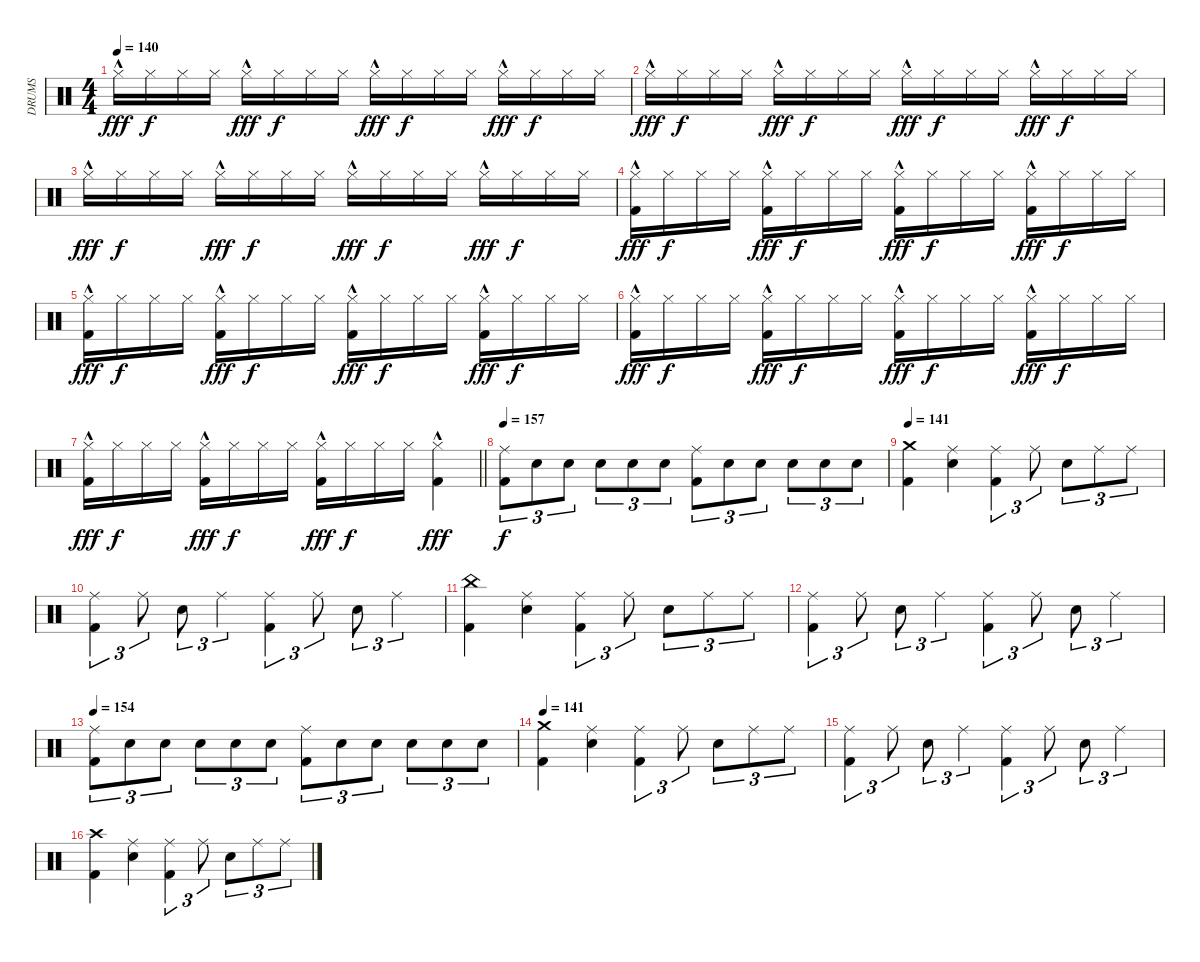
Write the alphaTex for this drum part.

\track ("DRUMS" "DRUMS") {instrument percussion}
\staff {score}
\articulation defaults
\ts (4 4)
\tempo 140
\clef neutral
\ks c "Hi-Hat (closed)"{hac}.16{dy fff} "Hi-Hat (closed)".16{dy f} "Hi-Hat (closed)".16 "Hi-Hat (closed)".16 "Hi-Hat (closed)"{hac}.16{dy fff} "Hi-Hat (closed)".16{dy f} "Hi-Hat (closed)".16 "Hi-Hat (closed)".16 "Hi-Hat (closed)"{hac}.16{dy fff} "Hi-Hat (closed)".16{dy f} "Hi-Hat (closed)".16 "Hi-Hat (closed)".16 "Hi-Hat (closed)"{hac}.16{dy fff} "Hi-Hat (closed)".16{dy f} "Hi-Hat (closed)".16 "Hi-Hat (closed)".16
|
"Hi-Hat (closed)"{hac}.16{dy fff} "Hi-Hat (closed)".16{dy f} "Hi-Hat (closed)".16 "Hi-Hat (closed)".16 "Hi-Hat (closed)"{hac}.16{dy fff} "Hi-Hat (closed)".16{dy f} "Hi-Hat (closed)".16 "Hi-Hat (closed)".16 "Hi-Hat (closed)"{hac}.16{dy fff} "Hi-Hat (closed)".16{dy f} "Hi-Hat (closed)".16 "Hi-Hat (closed)".16 "Hi-Hat (closed)"{hac}.16{dy fff} "Hi-Hat (closed)".16{dy f} "Hi-Hat (closed)".16 "Hi-Hat (closed)".16 |
"Hi-Hat (closed)"{hac}.16{dy fff} "Hi-Hat (closed)".16{dy f} "Hi-Hat (closed)".16 "Hi-Hat (closed)".16 "Hi-Hat (closed)"{hac}.16{dy fff} "Hi-Hat (closed)".16{dy f} "Hi-Hat (closed)".16 "Hi-Hat (closed)".16 "Hi-Hat (closed)"{hac}.16{dy fff} "Hi-Hat (closed)".16{dy f} "Hi-Hat (closed)".16 "Hi-Hat (closed)".16 "Hi-Hat (closed)"{hac}.16{dy fff} "Hi-Hat (closed)".16{dy f} "Hi-Hat (closed)".16 "Hi-Hat (closed)".16 |
("Hi-Hat (closed)"{hac} "Kick (hit) 2").16{dy fff} "Hi-Hat (closed)".16{dy f} "Hi-Hat (closed)".16 "Hi-Hat (closed)".16 ("Hi-Hat (closed)"{hac} "Kick (hit) 2").16{dy fff} "Hi-Hat (closed)".16{dy f} "Hi-Hat (closed)".16 "Hi-Hat (closed)".16 ("Hi-Hat (closed)"{hac} "Kick (hit) 2").16{dy fff} "Hi-Hat (closed)".16{dy f} "Hi-Hat (closed)".16 "Hi-Hat (closed)".16 ("Hi-Hat (closed)"{hac} "Kick (hit) 2").16{dy fff} "Hi-Hat (closed)".16{dy f} "Hi-Hat (closed)".16 "Hi-Hat (closed)".16 |
("Hi-Hat (closed)"{hac} "Kick (hit) 2").16{dy fff} "Hi-Hat (closed)".16{dy f} "Hi-Hat (closed)".16 "Hi-Hat (closed)".16 ("Hi-Hat (closed)"{hac} "Kick (hit) 2").16{dy fff} "Hi-Hat (closed)".16{dy f} "Hi-Hat (closed)".16 "Hi-Hat (closed)".16 ("Hi-Hat (closed)"{hac} "Kick (hit) 2").16{dy fff} "Hi-Hat (closed)".16{dy f} "Hi-Hat (closed)".16 "Hi-Hat (closed)".16 ("Hi-Hat (closed)"{hac} "Kick (hit) 2").16{dy fff} "Hi-Hat (closed)".16{dy f} "Hi-Hat (closed)".16 "Hi-Hat (closed)".16 |
("Hi-Hat (closed)"{hac} "Kick (hit) 2").16{dy fff} "Hi-Hat (closed)".16{dy f} "Hi-Hat (closed)".16 "Hi-Hat (closed)".16 ("Hi-Hat (closed)"{hac} "Kick (hit) 2").16{dy fff} "Hi-Hat (closed)".16{dy f} "Hi-Hat (closed)".16 "Hi-Hat (closed)".16 ("Hi-Hat (closed)"{hac} "Kick (hit) 2").16{dy fff} "Hi-Hat (closed)".16{dy f} "Hi-Hat (closed)".16 "Hi-Hat (closed)".16 ("Hi-Hat (closed)"{hac} "Kick (hit) 2").16{dy fff} "Hi-Hat (closed)".16{dy f} "Hi-Hat (closed)".16 "Hi-Hat (closed)".16 |
\barLineRight lightlight
("Hi-Hat (closed)"{hac} "Kick (hit) 2").16{dy fff} "Hi-Hat (closed)".16{dy f} "Hi-Hat (closed)".16 "Hi-Hat (closed)".16 ("Hi-Hat (closed)"{hac} "Kick (hit) 2").16{dy fff} "Hi-Hat (closed)".16{dy f} "Hi-Hat (closed)".16 "Hi-Hat (closed)".16 ("Hi-Hat (closed)"{hac} "Kick (hit) 2").16{dy fff} "Hi-Hat (closed)".16{dy f} "Hi-Hat (closed)".16 "Hi-Hat (closed)".16 ("Hi-Hat (closed)"{hac} "Kick (hit) 2").4{dy fff} |
\tempo 157
("Ride (middle)" "Kick (hit) 2").8{tu (3 2) dy f} "Snare (hit) 2".8{tu (3 2)} "Snare (hit) 2".8{tu (3 2)} "Snare (hit) 2".8{tu (3 2)} "Snare (hit) 2".8{tu (3 2)} "Snare (hit) 2".8{tu (3 2)} ("Ride (middle)" "Kick (hit) 2").8{tu (3 2)} "Snare (hit) 2".8{tu (3 2)} "Snare (hit) 2".8{tu (3 2)} "Snare (hit) 2".8{tu (3 2)} "Snare (hit) 2".8{tu (3 2)} "Snare (hit) 2".8{tu (3 2)} |
\tempo 141
("Crash medium (hit)" "Kick (hit) 2").4 ("Ride (middle)" "Snare (hit) 2").4 ("Ride (middle)" "Kick (hit) 2").4{tu (3 2)} "Ride (middle)".8{tu (3 2)} "Snare (hit) 2".8{tu (3 2)} "Ride (middle)".8{tu (3 2)} "Ride (middle)".8{tu (3 2)} |
("Ride (middle)" "Kick (hit) 2").4{tu (3 2)} "Ride (middle)".8{tu (3 2)} "Snare (hit) 2".8{tu (3 2)} "Ride (middle)".4{tu (3 2)} ("Ride (middle)" "Kick (hit) 2").4{tu (3 2)} "Ride (middle)".8{tu (3 2)} "Snare (hit) 2".8{tu (3 2)} "Ride (middle)".4{tu (3 2)} |
("China (hit)" "Kick (hit) 2").4 ("Ride (middle)" "Snare (hit) 2").4 ("Ride (middle)" "Kick (hit) 2").4{tu (3 2)} "Ride (middle)".8{tu (3 2)} "Snare (hit) 2".8{tu (3 2)} "Ride (middle)".8{tu (3 2)} "Ride (middle)".8{tu (3 2)} |
("Ride (middle)" "Kick (hit) 2").4{tu (3 2)} "Ride (middle)".8{tu (3 2)} "Snare (hit) 2".8{tu (3 2)} "Ride (middle)".4{tu (3 2)} ("Ride (middle)" "Kick (hit) 2").4{tu (3 2)} "Ride (middle)".8{tu (3 2)} "Snare (hit) 2".8{tu (3 2)} "Ride (middle)".4{tu (3 2)} |
\tempo 154
("Ride (middle)" "Kick (hit) 2").8{tu (3 2)} "Snare (hit) 2".8{tu (3 2)} "Snare (hit) 2".8{tu (3 2)} "Snare (hit) 2".8{tu (3 2)} "Snare (hit) 2".8{tu (3 2)} "Snare (hit) 2".8{tu (3 2)} ("Ride (middle)" "Kick (hit) 2").8{tu (3 2)} "Snare (hit) 2".8{tu (3 2)} "Snare (hit) 2".8{tu (3 2)} "Snare (hit) 2".8{tu (3 2)} "Snare (hit) 2".8{tu (3 2)} "Snare (hit) 2".8{tu (3 2)} |
\tempo 141
("Crash medium (hit)" "Kick (hit) 2").4 ("Ride (middle)" "Snare (hit) 2").4 ("Ride (middle)" "Kick (hit) 2").4{tu (3 2)} "Ride (middle)".8{tu (3 2)} "Snare (hit) 2".8{tu (3 2)} "Ride (middle)".8{tu (3 2)} "Ride (middle)".8{tu (3 2)} |
("Ride (middle)" "Kick (hit) 2").4{tu (3 2)} "Ride (middle)".8{tu (3 2)} "Snare (hit) 2".8{tu (3 2)} "Ride (middle)".4{tu (3 2)} ("Ride (middle)" "Kick (hit) 2").4{tu (3 2)} "Ride (middle)".8{tu (3 2)} "Snare (hit) 2".8{tu (3 2)} "Ride (middle)".4{tu (3 2)} |
("Crash high (hit)" "Kick (hit) 2").4 ("Ride (middle)" "Snare (hit) 2").4 ("Ride (middle)" "Kick (hit) 2").4{tu (3 2)} "Ride (middle)".8{tu (3 2)} "Snare (hit) 2".8{tu (3 2)} "Ride (middle)".8{tu (3 2)} "Ride (middle)".8{tu (3 2)}
